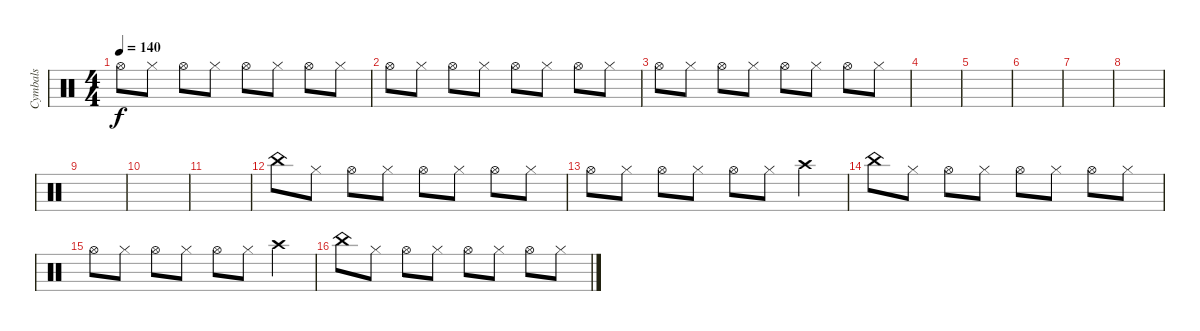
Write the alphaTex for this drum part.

\track ("Cymbals" "Cymbals") {instrument percussion}
\staff {score}
\articulation defaults
\ts (4 4)
\tempo 140
\clef neutral
\ks c "Hi-Hat (open)".8{dy f} "Hi-Hat (closed)".8 "Hi-Hat (open)".8 "Hi-Hat (closed)".8 "Hi-Hat (open)".8 "Hi-Hat (closed)".8 "Hi-Hat (open)".8 "Hi-Hat (closed)".8
|
"Hi-Hat (open)".8 "Hi-Hat (closed)".8 "Hi-Hat (open)".8 "Hi-Hat (closed)".8 "Hi-Hat (open)".8 "Hi-Hat (closed)".8 "Hi-Hat (open)".8 "Hi-Hat (closed)".8 |
"Hi-Hat (open)".8 "Hi-Hat (closed)".8 "Hi-Hat (open)".8 "Hi-Hat (closed)".8 "Hi-Hat (open)".8 "Hi-Hat (closed)".8 "Hi-Hat (open)".8 "Hi-Hat (closed)".8 |
|
|
|
|
|
|
|
|
"China (hit)".8 "Hi-Hat (closed)".8 "Hi-Hat (open)".8 "Hi-Hat (closed)".8 "Hi-Hat (open)".8 "Hi-Hat (closed)".8 "Hi-Hat (open)".8 "Hi-Hat (closed)".8 |
"Hi-Hat (open)".8 "Hi-Hat (closed)".8 "Hi-Hat (open)".8 "Hi-Hat (closed)".8 "Hi-Hat (open)".8 "Hi-Hat (closed)".8 "Crash high (hit)".4 |
"China (hit)".8 "Hi-Hat (closed)".8 "Hi-Hat (open)".8 "Hi-Hat (closed)".8 "Hi-Hat (open)".8 "Hi-Hat (closed)".8 "Hi-Hat (open)".8 "Hi-Hat (closed)".8 |
"Hi-Hat (open)".8 "Hi-Hat (closed)".8 "Hi-Hat (open)".8 "Hi-Hat (closed)".8 "Hi-Hat (open)".8 "Hi-Hat (closed)".8 "Crash high (hit)".4 |
"China (hit)".8 "Hi-Hat (closed)".8 "Hi-Hat (open)".8 "Hi-Hat (closed)".8 "Hi-Hat (open)".8 "Hi-Hat (closed)".8 "Hi-Hat (open)".8 "Hi-Hat (closed)".8
